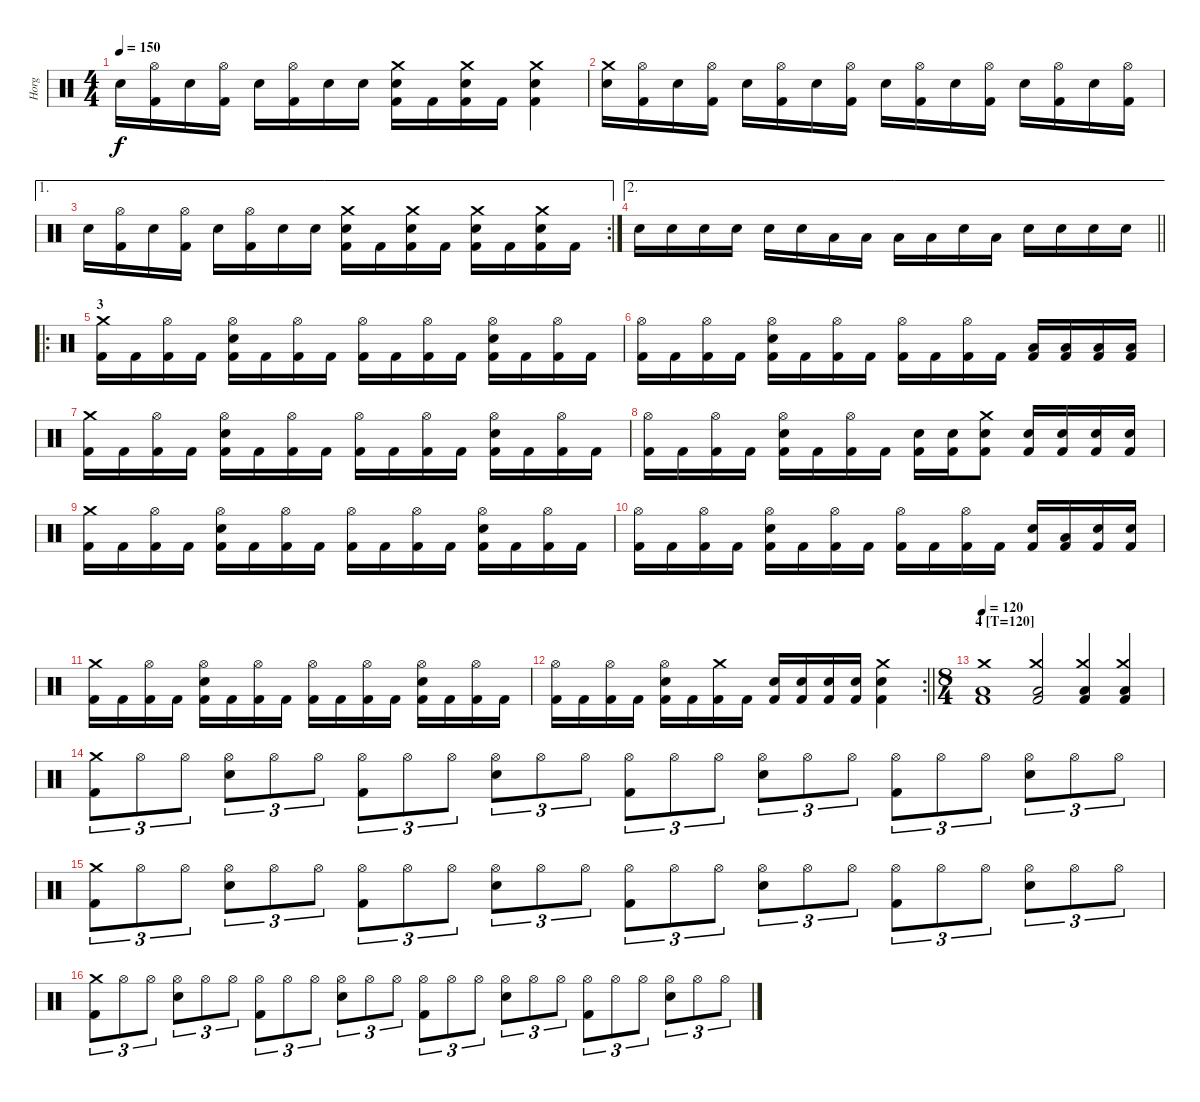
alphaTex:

\track ("Horg" "Horg") {instrument percussion}
\staff {score}
\articulation defaults
\ts (4 4)
\tempo 150
\clef neutral
\ks c "Snare (hit) 2".16{dy f}
("Hi-Hat (open)" "Kick (hit) 2").16 "Snare (hit) 2".16 ("Hi-Hat (open)" "Kick (hit) 2").16 "Snare (hit) 2".16 ("Hi-Hat (open)" "Kick (hit) 2").16 "Snare (hit) 2".16 "Snare (hit) 2".16 ("Crash medium (hit)" "Snare (hit) 2" "Kick (hit) 2").16 "Kick (hit) 2".16 ("Crash medium (hit)" "Snare (hit) 2" "Kick (hit) 2").16 "Kick (hit) 2".16 ("Crash medium (hit)" "Snare (hit) 2" "Kick (hit) 2").4 |
("Crash medium (hit)" "Snare (hit) 2").16 ("Hi-Hat (open)" "Kick (hit) 2").16 "Snare (hit) 2".16 ("Hi-Hat (open)" "Kick (hit) 2").16 "Snare (hit) 2".16 ("Hi-Hat (open)" "Kick (hit) 2").16 "Snare (hit) 2".16 ("Hi-Hat (open)" "Kick (hit) 2").16 "Snare (hit) 2".16 ("Hi-Hat (open)" "Kick (hit) 2").16 "Snare (hit) 2".16 ("Hi-Hat (open)" "Kick (hit) 2").16 "Snare (hit) 2".16 ("Hi-Hat (open)" "Kick (hit) 2").16 "Snare (hit) 2".16 ("Hi-Hat (open)" "Kick (hit) 2").16 |
\ae 1
\rc 2 "Snare (hit) 2".16
("Hi-Hat (open)" "Kick (hit) 2").16 "Snare (hit) 2".16 ("Hi-Hat (open)" "Kick (hit) 2").16 "Snare (hit) 2".16 ("Hi-Hat (open)" "Kick (hit) 2").16 "Snare (hit) 2".16 "Snare (hit) 2".16 ("Crash medium (hit)" "Snare (hit) 2" "Kick (hit) 2").16 "Kick (hit) 2".16 ("Crash medium (hit)" "Snare (hit) 2" "Kick (hit) 2").16 "Kick (hit) 2".16 ("Crash medium (hit)" "Snare (hit) 2" "Kick (hit) 2").16 "Kick (hit) 2".16 ("Crash medium (hit)" "Snare (hit) 2" "Kick (hit) 2").16 "Kick (hit) 2".16 |
\ae 2
\barLineRight lightlight "Snare (hit) 2".16 "Snare (hit) 2".16 "Snare (hit) 2".16 "Snare (hit) 2".16 "Snare (hit) 2".16 "Snare (hit) 2".16 "Low Tom (hit)".16 "Low Tom (hit)".16 "Low Tom (hit)".16 "Low Tom (hit)".16 "Snare (hit) 2".16 "Low Tom (hit)".16 "Snare (hit) 2".16 "Snare (hit) 2".16 "Snare (hit) 2".16 "Snare (hit) 2".16
|
\ro
\section ("" "3")
("Crash medium (hit)" "Kick (hit) 2").16 "Kick (hit) 2".16 ("Hi-Hat (open)" "Kick (hit) 2").16 "Kick (hit) 2".16 ("Hi-Hat (open)" "Snare (hit) 2" "Kick (hit) 2").16 "Kick (hit) 2".16 ("Hi-Hat (open)" "Kick (hit) 2").16 "Kick (hit) 2".16 ("Hi-Hat (open)" "Kick (hit) 2").16 "Kick (hit) 2".16 ("Hi-Hat (open)" "Kick (hit) 2").16 "Kick (hit) 2".16 ("Hi-Hat (open)" "Snare (hit) 2" "Kick (hit) 2").16 "Kick (hit) 2".16 ("Hi-Hat (open)" "Kick (hit) 2").16 "Kick (hit) 2".16 |
("Hi-Hat (open)" "Kick (hit) 2").16 "Kick (hit) 2".16 ("Hi-Hat (open)" "Kick (hit) 2").16 "Kick (hit) 2".16 ("Hi-Hat (open)" "Snare (hit) 2" "Kick (hit) 2").16 "Kick (hit) 2".16 ("Hi-Hat (open)" "Kick (hit) 2").16 "Kick (hit) 2".16 ("Hi-Hat (open)" "Kick (hit) 2").16 "Kick (hit) 2".16 ("Hi-Hat (open)" "Kick (hit) 2").16 "Kick (hit) 2".16 ("Low Floor Tom (hit)" "Kick (hit) 2").16 ("Low Floor Tom (hit)" "Kick (hit) 2").16 ("Low Floor Tom (hit)" "Kick (hit) 2").16 ("Low Floor Tom (hit)" "Kick (hit) 2").16 |
("Crash medium (hit)" "Kick (hit) 2").16 "Kick (hit) 2".16 ("Hi-Hat (open)" "Kick (hit) 2").16 "Kick (hit) 2".16 ("Hi-Hat (open)" "Snare (hit) 2" "Kick (hit) 2").16 "Kick (hit) 2".16 ("Hi-Hat (open)" "Kick (hit) 2").16 "Kick (hit) 2".16 ("Hi-Hat (open)" "Kick (hit) 2").16 "Kick (hit) 2".16 ("Hi-Hat (open)" "Kick (hit) 2").16 "Kick (hit) 2".16 ("Hi-Hat (open)" "Snare (hit) 2" "Kick (hit) 2").16 "Kick (hit) 2".16 ("Hi-Hat (open)" "Kick (hit) 2").16 "Kick (hit) 2".16 |
("Hi-Hat (open)" "Kick (hit) 2").16 "Kick (hit) 2".16 ("Hi-Hat (open)" "Kick (hit) 2").16 "Kick (hit) 2".16 ("Hi-Hat (open)" "Snare (hit) 2" "Kick (hit) 2").16 "Kick (hit) 2".16 ("Hi-Hat (open)" "Kick (hit) 2").16 "Kick (hit) 2".16 ("Snare (hit) 2" "Kick (hit) 2").16 ("Snare (hit) 2" "Kick (hit) 2").16 ("Crash medium (hit)" "Snare (hit) 2" "Kick (hit) 2").8 ("Snare (hit) 2" "Kick (hit) 2").16 ("Snare (hit) 2" "Kick (hit) 2").16 ("Snare (hit) 2" "Kick (hit) 2").16 ("Snare (hit) 2" "Kick (hit) 2").16 |
("Crash medium (hit)" "Kick (hit) 2").16 "Kick (hit) 2".16 ("Hi-Hat (open)" "Kick (hit) 2").16 "Kick (hit) 2".16 ("Hi-Hat (open)" "Snare (hit) 2" "Kick (hit) 2").16 "Kick (hit) 2".16 ("Hi-Hat (open)" "Kick (hit) 2").16 "Kick (hit) 2".16 ("Hi-Hat (open)" "Kick (hit) 2").16 "Kick (hit) 2".16 ("Hi-Hat (open)" "Kick (hit) 2").16 "Kick (hit) 2".16 ("Hi-Hat (open)" "Snare (hit) 2" "Kick (hit) 2").16 "Kick (hit) 2".16 ("Hi-Hat (open)" "Kick (hit) 2").16 "Kick (hit) 2".16 |
("Hi-Hat (open)" "Kick (hit) 2").16 "Kick (hit) 2".16 ("Hi-Hat (open)" "Kick (hit) 2").16 "Kick (hit) 2".16 ("Hi-Hat (open)" "Snare (hit) 2" "Kick (hit) 2").16 "Kick (hit) 2".16 ("Hi-Hat (open)" "Kick (hit) 2").16 "Kick (hit) 2".16 ("Hi-Hat (open)" "Kick (hit) 2").16 "Kick (hit) 2".16 ("Hi-Hat (open)" "Kick (hit) 2").16 "Kick (hit) 2".16 ("Snare (hit) 2" "Kick (hit) 2").16 ("Low Floor Tom (hit)" "Kick (hit) 2").16 ("Snare (hit) 2" "Kick (hit) 2").16 ("Snare (hit) 2" "Kick (hit) 2").16 |
("Crash medium (hit)" "Kick (hit) 2").16 "Kick (hit) 2".16 ("Hi-Hat (open)" "Kick (hit) 2").16 "Kick (hit) 2".16 ("Hi-Hat (open)" "Snare (hit) 2" "Kick (hit) 2").16 "Kick (hit) 2".16 ("Hi-Hat (open)" "Kick (hit) 2").16 "Kick (hit) 2".16 ("Hi-Hat (open)" "Kick (hit) 2").16 "Kick (hit) 2".16 ("Hi-Hat (open)" "Kick (hit) 2").16 "Kick (hit) 2".16 ("Hi-Hat (open)" "Snare (hit) 2" "Kick (hit) 2").16 "Kick (hit) 2".16 ("Hi-Hat (open)" "Kick (hit) 2").16 "Kick (hit) 2".16 |
\rc 2
\barLineRight lightlight
("Hi-Hat (open)" "Kick (hit) 2").16 "Kick (hit) 2".16 ("Hi-Hat (open)" "Kick (hit) 2").16 "Kick (hit) 2".16 ("Hi-Hat (open)" "Snare (hit) 2" "Kick (hit) 2").16 "Kick (hit) 2".16 ("Crash medium (hit)" "Kick (hit) 2").16 "Kick (hit) 2".16 ("Snare (hit) 2" "Kick (hit) 2").16 ("Snare (hit) 2" "Kick (hit) 2").16 ("Snare (hit) 2" "Kick (hit) 2").16 ("Snare (hit) 2" "Kick (hit) 2").16 ("Crash medium (hit)" "Snare (hit) 2" "Kick (hit) 2").4 |
\ts (8 4)
\section ("" "4 [T=120]")
\tempo 120
("Crash medium (hit)" "Low Floor Tom (hit)" "Kick (hit) 2").1 ("Crash medium (hit)" "Low Floor Tom (hit)" "Kick (hit) 2").2 ("Crash medium (hit)" "Low Floor Tom (hit)" "Kick (hit) 2").4 ("Crash medium (hit)" "Low Floor Tom (hit)" "Kick (hit) 2").4 |
("Crash medium (hit)" "Kick (hit) 2").8{tu (3 2)} "Hi-Hat (open)".8{tu (3 2)} "Hi-Hat (open)".8{tu (3 2)} ("Hi-Hat (open)" "Snare (hit) 2").8{tu (3 2)} "Hi-Hat (open)".8{tu (3 2)} "Hi-Hat (open)".8{tu (3 2)} ("Hi-Hat (open)" "Kick (hit) 2").8{tu (3 2)} "Hi-Hat (open)".8{tu (3 2)} "Hi-Hat (open)".8{tu (3 2)} ("Hi-Hat (open)" "Snare (hit) 2").8{tu (3 2)} "Hi-Hat (open)".8{tu (3 2)} "Hi-Hat (open)".8{tu (3 2)} ("Hi-Hat (open)" "Kick (hit) 2").8{tu (3 2)} "Hi-Hat (open)".8{tu (3 2)} "Hi-Hat (open)".8{tu (3 2)} ("Hi-Hat (open)" "Snare (hit) 2").8{tu (3 2)} "Hi-Hat (open)".8{tu (3 2)} "Hi-Hat (open)".8{tu (3 2)} ("Hi-Hat (open)" "Kick (hit) 2").8{tu (3 2)} "Hi-Hat (open)".8{tu (3 2)} "Hi-Hat (open)".8{tu (3 2)} ("Hi-Hat (open)" "Snare (hit) 2").8{tu (3 2)} "Hi-Hat (open)".8{tu (3 2)} "Hi-Hat (open)".8{tu (3 2)} |
("Crash medium (hit)" "Kick (hit) 2").8{tu (3 2)} "Hi-Hat (open)".8{tu (3 2)} "Hi-Hat (open)".8{tu (3 2)} ("Hi-Hat (open)" "Snare (hit) 2").8{tu (3 2)} "Hi-Hat (open)".8{tu (3 2)} "Hi-Hat (open)".8{tu (3 2)} ("Hi-Hat (open)" "Kick (hit) 2").8{tu (3 2)} "Hi-Hat (open)".8{tu (3 2)} "Hi-Hat (open)".8{tu (3 2)} ("Hi-Hat (open)" "Snare (hit) 2").8{tu (3 2)} "Hi-Hat (open)".8{tu (3 2)} "Hi-Hat (open)".8{tu (3 2)} ("Hi-Hat (open)" "Kick (hit) 2").8{tu (3 2)} "Hi-Hat (open)".8{tu (3 2)} "Hi-Hat (open)".8{tu (3 2)} ("Hi-Hat (open)" "Snare (hit) 2").8{tu (3 2)} "Hi-Hat (open)".8{tu (3 2)} "Hi-Hat (open)".8{tu (3 2)} ("Hi-Hat (open)" "Kick (hit) 2").8{tu (3 2)} "Hi-Hat (open)".8{tu (3 2)} "Hi-Hat (open)".8{tu (3 2)} ("Hi-Hat (open)" "Snare (hit) 2").8{tu (3 2)} "Hi-Hat (open)".8{tu (3 2)} "Hi-Hat (open)".8{tu (3 2)} |
("Crash medium (hit)" "Kick (hit) 2").8{tu (3 2)} "Hi-Hat (open)".8{tu (3 2)} "Hi-Hat (open)".8{tu (3 2)} ("Hi-Hat (open)" "Snare (hit) 2").8{tu (3 2)} "Hi-Hat (open)".8{tu (3 2)} "Hi-Hat (open)".8{tu (3 2)} ("Hi-Hat (open)" "Kick (hit) 2").8{tu (3 2)} "Hi-Hat (open)".8{tu (3 2)} "Hi-Hat (open)".8{tu (3 2)} ("Hi-Hat (open)" "Snare (hit) 2").8{tu (3 2)} "Hi-Hat (open)".8{tu (3 2)} "Hi-Hat (open)".8{tu (3 2)} ("Hi-Hat (open)" "Kick (hit) 2").8{tu (3 2)} "Hi-Hat (open)".8{tu (3 2)} "Hi-Hat (open)".8{tu (3 2)} ("Hi-Hat (open)" "Snare (hit) 2").8{tu (3 2)} "Hi-Hat (open)".8{tu (3 2)} "Hi-Hat (open)".8{tu (3 2)} ("Hi-Hat (open)" "Kick (hit) 2").8{tu (3 2)} "Hi-Hat (open)".8{tu (3 2)} "Hi-Hat (open)".8{tu (3 2)} ("Hi-Hat (open)" "Snare (hit) 2").8{tu (3 2)} "Hi-Hat (open)".8{tu (3 2)} "Hi-Hat (open)".8{tu (3 2)}
